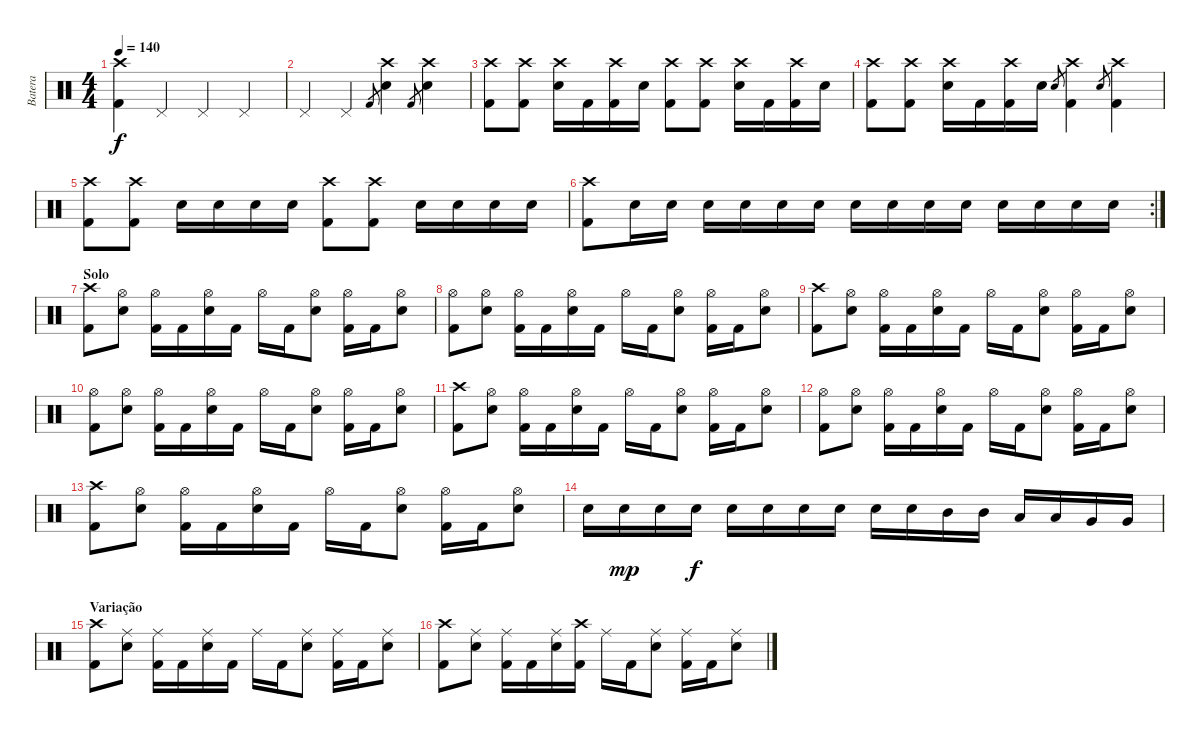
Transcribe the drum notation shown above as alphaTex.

\track ("Batera" "Batera") {instrument percussion}
\staff {score}
\articulation defaults
\ts (4 4)
\tempo 140
\clef neutral
\ks c
("Crash high (hit)" "Kick (hit) 2").4{dy f} "Pedal Hi-Hat (hit)".4 "Pedal Hi-Hat (hit)".4 "Pedal Hi-Hat (hit)".4 |
"Pedal Hi-Hat (hit)".4 "Pedal Hi-Hat (hit)".4 "Kick (hit) 2".8{gr} ("Crash high (hit)" "Snare (hit) 2").4 "Kick (hit) 2".8{gr} ("Crash high (hit)" "Snare (hit) 2").4 |
("Crash high (hit)" "Kick (hit) 2").8 ("Crash high (hit)" "Kick (hit) 2").8 ("Crash high (hit)" "Snare (hit) 2").16 "Kick (hit) 2".16 ("Crash high (hit)" "Kick (hit) 2").16 "Snare (hit) 2".16 ("Crash high (hit)" "Kick (hit) 2").8 ("Crash high (hit)" "Kick (hit) 2").8 ("Crash high (hit)" "Snare (hit) 2").16 "Kick (hit) 2".16 ("Crash high (hit)" "Kick (hit) 2").16 "Snare (hit) 2".16 |
("Crash high (hit)" "Kick (hit) 2").8 ("Crash high (hit)" "Kick (hit) 2").8 ("Crash high (hit)" "Snare (hit) 2").16 "Kick (hit) 2".16 ("Crash high (hit)" "Kick (hit) 2").16 "Snare (hit) 2".16 "Snare (hit) 2".8{gr} ("Crash high (hit)" "Kick (hit) 2").4 "Snare (hit) 2".8{gr} ("Crash high (hit)" "Kick (hit) 2").4 |
("Crash high (hit)" "Kick (hit) 2").8 ("Crash high (hit)" "Kick (hit) 2").8 "Snare (hit) 2".16 "Snare (hit) 2".16 "Snare (hit) 2".16 "Snare (hit) 2".16 ("Crash high (hit)" "Kick (hit) 2").8 ("Crash high (hit)" "Kick (hit) 2").8 "Snare (hit) 2".16 "Snare (hit) 2".16 "Snare (hit) 2".16 "Snare (hit) 2".16 |
\rc 2
("Crash high (hit)" "Kick (hit) 2").8 "Snare (hit) 2".16 "Snare (hit) 2".16 "Snare (hit) 2".16 "Snare (hit) 2".16 "Snare (hit) 2".16 "Snare (hit) 2".16 "Snare (hit) 2".16 "Snare (hit) 2".16 "Snare (hit) 2".16 "Snare (hit) 2".16 "Snare (hit) 2".16 "Snare (hit) 2".16 "Snare (hit) 2".16 "Snare (hit) 2".16 |
\section ("" "Solo")
("Crash high (hit)" "Kick (hit) 2").8 ("Hi-Hat (open)" "Snare (hit) 2").8 ("Hi-Hat (open)" "Kick (hit) 2").16 "Kick (hit) 2".16 ("Hi-Hat (open)" "Snare (hit) 2").16 "Kick (hit) 2".16 "Hi-Hat (open)".16 "Kick (hit) 2".16 ("Hi-Hat (open)" "Snare (hit) 2").8 ("Hi-Hat (open)" "Kick (hit) 2").16 "Kick (hit) 2".16 ("Hi-Hat (open)" "Snare (hit) 2").8 |
("Hi-Hat (open)" "Kick (hit) 2").8 ("Hi-Hat (open)" "Snare (hit) 2").8 ("Hi-Hat (open)" "Kick (hit) 2").16 "Kick (hit) 2".16 ("Hi-Hat (open)" "Snare (hit) 2").16 "Kick (hit) 2".16 "Hi-Hat (open)".16 "Kick (hit) 2".16 ("Hi-Hat (open)" "Snare (hit) 2").8 ("Hi-Hat (open)" "Kick (hit) 2").16 "Kick (hit) 2".16 ("Hi-Hat (open)" "Snare (hit) 2").8 |
("Crash high (hit)" "Kick (hit) 2").8 ("Hi-Hat (open)" "Snare (hit) 2").8 ("Hi-Hat (open)" "Kick (hit) 2").16 "Kick (hit) 2".16 ("Hi-Hat (open)" "Snare (hit) 2").16 "Kick (hit) 2".16 "Hi-Hat (open)".16 "Kick (hit) 2".16 ("Hi-Hat (open)" "Snare (hit) 2").8 ("Hi-Hat (open)" "Kick (hit) 2").16 "Kick (hit) 2".16 ("Hi-Hat (open)" "Snare (hit) 2").8 |
("Hi-Hat (open)" "Kick (hit) 2").8 ("Hi-Hat (open)" "Snare (hit) 2").8 ("Hi-Hat (open)" "Kick (hit) 2").16 "Kick (hit) 2".16 ("Hi-Hat (open)" "Snare (hit) 2").16 "Kick (hit) 2".16 "Hi-Hat (open)".16 "Kick (hit) 2".16 ("Hi-Hat (open)" "Snare (hit) 2").8 ("Hi-Hat (open)" "Kick (hit) 2").16 "Kick (hit) 2".16 ("Hi-Hat (open)" "Snare (hit) 2").8 |
("Crash high (hit)" "Kick (hit) 2").8 ("Hi-Hat (open)" "Snare (hit) 2").8 ("Hi-Hat (open)" "Kick (hit) 2").16 "Kick (hit) 2".16 ("Hi-Hat (open)" "Snare (hit) 2").16 "Kick (hit) 2".16 "Hi-Hat (open)".16 "Kick (hit) 2".16 ("Hi-Hat (open)" "Snare (hit) 2").8 ("Hi-Hat (open)" "Kick (hit) 2").16 "Kick (hit) 2".16 ("Hi-Hat (open)" "Snare (hit) 2").8 |
("Hi-Hat (open)" "Kick (hit) 2").8 ("Hi-Hat (open)" "Snare (hit) 2").8 ("Hi-Hat (open)" "Kick (hit) 2").16 "Kick (hit) 2".16 ("Hi-Hat (open)" "Snare (hit) 2").16 "Kick (hit) 2".16 "Hi-Hat (open)".16 "Kick (hit) 2".16 ("Hi-Hat (open)" "Snare (hit) 2").8 ("Hi-Hat (open)" "Kick (hit) 2").16 "Kick (hit) 2".16 ("Hi-Hat (open)" "Snare (hit) 2").8 |
("Crash high (hit)" "Kick (hit) 2").8 ("Hi-Hat (open)" "Snare (hit) 2").8 ("Hi-Hat (open)" "Kick (hit) 2").16 "Kick (hit) 2".16 ("Hi-Hat (open)" "Snare (hit) 2").16 "Kick (hit) 2".16 "Hi-Hat (open)".16 "Kick (hit) 2".16 ("Hi-Hat (open)" "Snare (hit) 2").8 ("Hi-Hat (open)" "Kick (hit) 2").16 "Kick (hit) 2".16 ("Hi-Hat (open)" "Snare (hit) 2").8 |
"Snare (hit) 2".16 "Snare (hit) 2".16{dy mp} "Snare (hit) 2".16 "Snare (hit) 2".16{dy f} "Snare (hit) 2".16 "Snare (hit) 2".16 "Snare (hit) 2".16 "Snare (hit) 2".16 "Snare (hit) 2".16 "Snare (hit) 2".16 "Mid Tom (hit)".16 "Mid Tom (hit)".16 "Low Tom (hit)".16 "Low Tom (hit)".16 "Very Low Tom (hit)".16 "Very Low Tom (hit)".16 |
\section ("" "Variação")
("Crash high (hit)" "Kick (hit) 2").8 ("Ride (middle)" "Snare (hit) 2").8 ("Ride (middle)" "Kick (hit) 2").16 "Kick (hit) 2".16 ("Ride (middle)" "Snare (hit) 2").16 "Kick (hit) 2".16 "Ride (middle)".16 "Kick (hit) 2".16 ("Ride (middle)" "Snare (hit) 2").8 ("Ride (middle)" "Kick (hit) 2").16 "Kick (hit) 2".16 ("Ride (middle)" "Snare (hit) 2").8 |
("Crash high (hit)" "Kick (hit) 2").8 ("Ride (middle)" "Snare (hit) 2").8 ("Ride (middle)" "Kick (hit) 2").16 "Kick (hit) 2".16 ("Ride (middle)" "Snare (hit) 2").16 ("Crash high (hit)" "Kick (hit) 2").16 "Ride (middle)".16 "Kick (hit) 2".16 ("Ride (middle)" "Snare (hit) 2").8 ("Ride (middle)" "Kick (hit) 2").16 "Kick (hit) 2".16 ("Ride (middle)" "Snare (hit) 2").8
